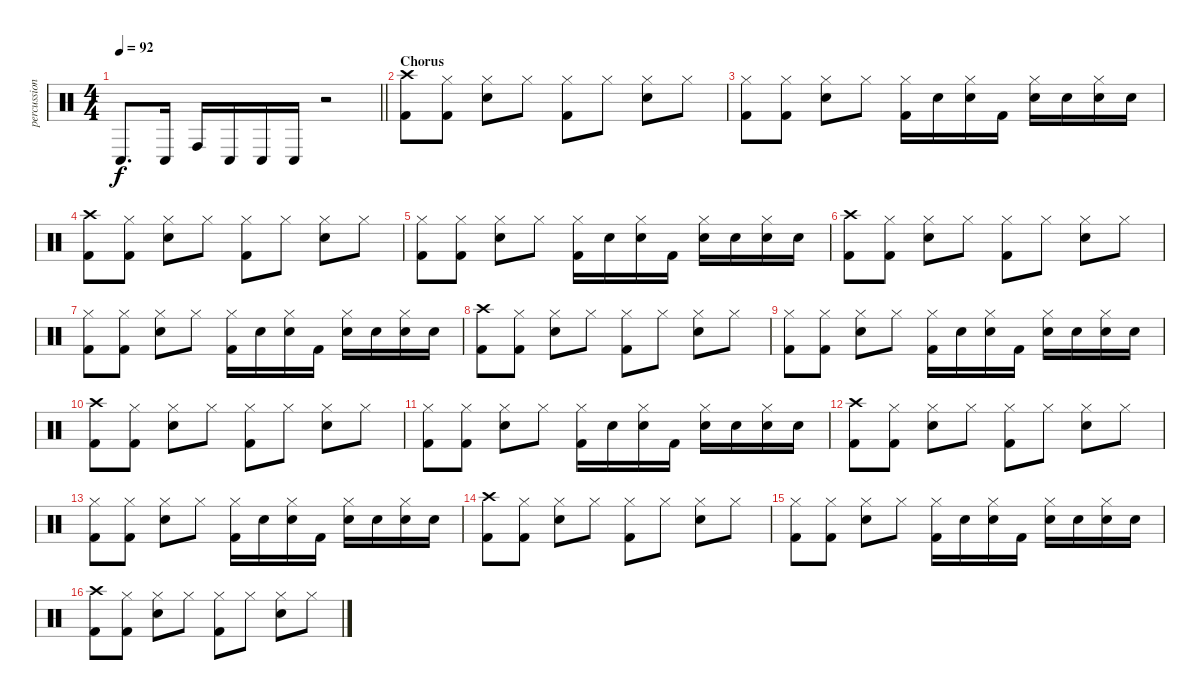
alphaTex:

\track ("percussion" "percussion") {instrument percussion}
\staff {score}
\articulation defaults
\ts (4 4)
\tempo 92
\clef neutral
\barLineRight lightlight
\ks c "Conga low (hit)".8{d dy f} "Conga low (hit)".16 "Conga high (hit)".16 "Conga low (hit)".16 "Conga low (hit)".16 "Conga low (hit)".16
r.2 |
\section ("" "Chorus")
("Crash high (hit)" "Kick (hit) 2").8 ("Hi-Hat (closed)" "Kick (hit) 2").8 ("Electric Snare (hit)" "Hi-Hat (closed)").8 "Hi-Hat (closed)".8 ("Hi-Hat (closed)" "Kick (hit) 2").8 "Hi-Hat (closed)".8 ("Electric Snare (hit)" "Hi-Hat (closed)").8 "Hi-Hat (closed)".8 |
("Hi-Hat (closed)" "Kick (hit) 2").8 ("Hi-Hat (closed)" "Kick (hit) 2").8 ("Electric Snare (hit)" "Hi-Hat (closed)").8 "Hi-Hat (closed)".8 ("Hi-Hat (closed)" "Kick (hit) 2").16 "Electric Snare (hit)".16 ("Electric Snare (hit)" "Hi-Hat (closed)").16 "Kick (hit) 2".16 ("Electric Snare (hit)" "Hi-Hat (closed)").16 "Electric Snare (hit)".16 ("Electric Snare (hit)" "Hi-Hat (closed)").16 "Electric Snare (hit)".16 |
("Crash high (hit)" "Kick (hit) 2").8 ("Hi-Hat (closed)" "Kick (hit) 2").8 ("Electric Snare (hit)" "Hi-Hat (closed)").8 "Hi-Hat (closed)".8 ("Hi-Hat (closed)" "Kick (hit) 2").8 "Hi-Hat (closed)".8 ("Electric Snare (hit)" "Hi-Hat (closed)").8 "Hi-Hat (closed)".8 |
("Hi-Hat (closed)" "Kick (hit) 2").8 ("Hi-Hat (closed)" "Kick (hit) 2").8 ("Electric Snare (hit)" "Hi-Hat (closed)").8 "Hi-Hat (closed)".8 ("Hi-Hat (closed)" "Kick (hit) 2").16 "Electric Snare (hit)".16 ("Electric Snare (hit)" "Hi-Hat (closed)").16 "Kick (hit) 2".16 ("Electric Snare (hit)" "Hi-Hat (closed)").16 "Electric Snare (hit)".16 ("Electric Snare (hit)" "Hi-Hat (closed)").16 "Electric Snare (hit)".16 |
("Crash high (hit)" "Kick (hit) 2").8 ("Hi-Hat (closed)" "Kick (hit) 2").8 ("Electric Snare (hit)" "Hi-Hat (closed)").8 "Hi-Hat (closed)".8 ("Hi-Hat (closed)" "Kick (hit) 2").8 "Hi-Hat (closed)".8 ("Electric Snare (hit)" "Hi-Hat (closed)").8 "Hi-Hat (closed)".8 |
("Hi-Hat (closed)" "Kick (hit) 2").8 ("Hi-Hat (closed)" "Kick (hit) 2").8 ("Electric Snare (hit)" "Hi-Hat (closed)").8 "Hi-Hat (closed)".8 ("Hi-Hat (closed)" "Kick (hit) 2").16 "Electric Snare (hit)".16 ("Electric Snare (hit)" "Hi-Hat (closed)").16 "Kick (hit) 2".16 ("Electric Snare (hit)" "Hi-Hat (closed)").16 "Electric Snare (hit)".16 ("Electric Snare (hit)" "Hi-Hat (closed)").16 "Electric Snare (hit)".16 |
("Crash high (hit)" "Kick (hit) 2").8 ("Hi-Hat (closed)" "Kick (hit) 2").8 ("Electric Snare (hit)" "Hi-Hat (closed)").8 "Hi-Hat (closed)".8 ("Hi-Hat (closed)" "Kick (hit) 2").8 "Hi-Hat (closed)".8 ("Electric Snare (hit)" "Hi-Hat (closed)").8 "Hi-Hat (closed)".8 |
("Hi-Hat (closed)" "Kick (hit) 2").8 ("Hi-Hat (closed)" "Kick (hit) 2").8 ("Electric Snare (hit)" "Hi-Hat (closed)").8 "Hi-Hat (closed)".8 ("Hi-Hat (closed)" "Kick (hit) 2").16 "Electric Snare (hit)".16 ("Electric Snare (hit)" "Hi-Hat (closed)").16 "Kick (hit) 2".16 ("Electric Snare (hit)" "Hi-Hat (closed)").16 "Electric Snare (hit)".16 ("Electric Snare (hit)" "Hi-Hat (closed)").16 "Electric Snare (hit)".16 |
("Crash high (hit)" "Kick (hit) 2").8 ("Hi-Hat (closed)" "Kick (hit) 2").8 ("Electric Snare (hit)" "Hi-Hat (closed)").8 "Hi-Hat (closed)".8 ("Hi-Hat (closed)" "Kick (hit) 2").8 "Hi-Hat (closed)".8 ("Electric Snare (hit)" "Hi-Hat (closed)").8 "Hi-Hat (closed)".8 |
("Hi-Hat (closed)" "Kick (hit) 2").8 ("Hi-Hat (closed)" "Kick (hit) 2").8 ("Electric Snare (hit)" "Hi-Hat (closed)").8 "Hi-Hat (closed)".8 ("Hi-Hat (closed)" "Kick (hit) 2").16 "Electric Snare (hit)".16 ("Electric Snare (hit)" "Hi-Hat (closed)").16 "Kick (hit) 2".16 ("Electric Snare (hit)" "Hi-Hat (closed)").16 "Electric Snare (hit)".16 ("Electric Snare (hit)" "Hi-Hat (closed)").16 "Electric Snare (hit)".16 |
("Crash high (hit)" "Kick (hit) 2").8 ("Hi-Hat (closed)" "Kick (hit) 2").8 ("Electric Snare (hit)" "Hi-Hat (closed)").8 "Hi-Hat (closed)".8 ("Hi-Hat (closed)" "Kick (hit) 2").8 "Hi-Hat (closed)".8 ("Electric Snare (hit)" "Hi-Hat (closed)").8 "Hi-Hat (closed)".8 |
("Hi-Hat (closed)" "Kick (hit) 2").8 ("Hi-Hat (closed)" "Kick (hit) 2").8 ("Electric Snare (hit)" "Hi-Hat (closed)").8 "Hi-Hat (closed)".8 ("Hi-Hat (closed)" "Kick (hit) 2").16 "Electric Snare (hit)".16 ("Electric Snare (hit)" "Hi-Hat (closed)").16 "Kick (hit) 2".16 ("Electric Snare (hit)" "Hi-Hat (closed)").16 "Electric Snare (hit)".16 ("Electric Snare (hit)" "Hi-Hat (closed)").16 "Electric Snare (hit)".16 |
("Crash high (hit)" "Kick (hit) 2").8 ("Hi-Hat (closed)" "Kick (hit) 2").8 ("Electric Snare (hit)" "Hi-Hat (closed)").8 "Hi-Hat (closed)".8 ("Hi-Hat (closed)" "Kick (hit) 2").8 "Hi-Hat (closed)".8 ("Electric Snare (hit)" "Hi-Hat (closed)").8 "Hi-Hat (closed)".8 |
("Hi-Hat (closed)" "Kick (hit) 2").8 ("Hi-Hat (closed)" "Kick (hit) 2").8 ("Electric Snare (hit)" "Hi-Hat (closed)").8 "Hi-Hat (closed)".8 ("Hi-Hat (closed)" "Kick (hit) 2").16 "Electric Snare (hit)".16 ("Electric Snare (hit)" "Hi-Hat (closed)").16 "Kick (hit) 2".16 ("Electric Snare (hit)" "Hi-Hat (closed)").16 "Electric Snare (hit)".16 ("Electric Snare (hit)" "Hi-Hat (closed)").16 "Electric Snare (hit)".16 |
("Crash high (hit)" "Kick (hit) 2").8 ("Hi-Hat (closed)" "Kick (hit) 2").8 ("Electric Snare (hit)" "Hi-Hat (closed)").8 "Hi-Hat (closed)".8 ("Hi-Hat (closed)" "Kick (hit) 2").8 "Hi-Hat (closed)".8 ("Electric Snare (hit)" "Hi-Hat (closed)").8 "Hi-Hat (closed)".8
